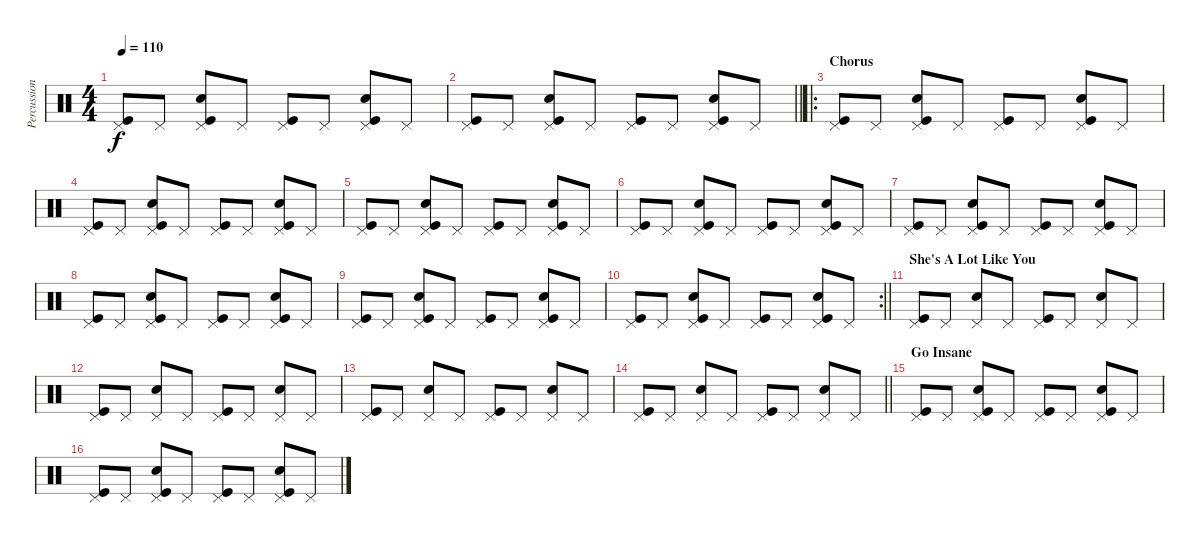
\track ("Percussion" "Percussion") {instrument percussion}
\staff {score}
\articulation defaults
\ts (4 4)
\tempo 110
\clef neutral
\ks c
("Pedal Hi-Hat (hit)" "Kick (hit)").8{dy f} "Pedal Hi-Hat (hit)".8 ("Pedal Hi-Hat (hit)" "Snare (hit) 2" "Kick (hit)").8 "Pedal Hi-Hat (hit)".8 ("Pedal Hi-Hat (hit)" "Kick (hit)").8 "Pedal Hi-Hat (hit)".8 ("Pedal Hi-Hat (hit)" "Snare (hit) 2" "Kick (hit)").8 "Pedal Hi-Hat (hit)".8 |
\barLineRight lightlight
("Pedal Hi-Hat (hit)" "Kick (hit)").8 "Pedal Hi-Hat (hit)".8 ("Pedal Hi-Hat (hit)" "Snare (hit) 2" "Kick (hit)").8 "Pedal Hi-Hat (hit)".8 ("Pedal Hi-Hat (hit)" "Kick (hit)").8 "Pedal Hi-Hat (hit)".8 ("Pedal Hi-Hat (hit)" "Snare (hit) 2" "Kick (hit)").8 "Pedal Hi-Hat (hit)".8 |
\ro
\section ("" "Chorus")
("Pedal Hi-Hat (hit)" "Kick (hit)").8 "Pedal Hi-Hat (hit)".8 ("Pedal Hi-Hat (hit)" "Snare (hit) 2" "Kick (hit)").8 "Pedal Hi-Hat (hit)".8 ("Pedal Hi-Hat (hit)" "Kick (hit)").8 "Pedal Hi-Hat (hit)".8 ("Pedal Hi-Hat (hit)" "Snare (hit) 2" "Kick (hit)").8 "Pedal Hi-Hat (hit)".8 |
("Pedal Hi-Hat (hit)" "Kick (hit)").8 "Pedal Hi-Hat (hit)".8 ("Pedal Hi-Hat (hit)" "Snare (hit) 2" "Kick (hit)").8 "Pedal Hi-Hat (hit)".8 ("Pedal Hi-Hat (hit)" "Kick (hit)").8 "Pedal Hi-Hat (hit)".8 ("Pedal Hi-Hat (hit)" "Snare (hit) 2" "Kick (hit)").8 "Pedal Hi-Hat (hit)".8 |
("Pedal Hi-Hat (hit)" "Kick (hit)").8 "Pedal Hi-Hat (hit)".8 ("Pedal Hi-Hat (hit)" "Snare (hit) 2" "Kick (hit)").8 "Pedal Hi-Hat (hit)".8 ("Pedal Hi-Hat (hit)" "Kick (hit)").8 "Pedal Hi-Hat (hit)".8 ("Pedal Hi-Hat (hit)" "Snare (hit) 2" "Kick (hit)").8 "Pedal Hi-Hat (hit)".8 |
("Pedal Hi-Hat (hit)" "Kick (hit)").8 "Pedal Hi-Hat (hit)".8 ("Pedal Hi-Hat (hit)" "Snare (hit) 2" "Kick (hit)").8 "Pedal Hi-Hat (hit)".8 ("Pedal Hi-Hat (hit)" "Kick (hit)").8 "Pedal Hi-Hat (hit)".8 ("Pedal Hi-Hat (hit)" "Snare (hit) 2" "Kick (hit)").8 "Pedal Hi-Hat (hit)".8 |
("Pedal Hi-Hat (hit)" "Kick (hit)").8 "Pedal Hi-Hat (hit)".8 ("Pedal Hi-Hat (hit)" "Snare (hit) 2" "Kick (hit)").8 "Pedal Hi-Hat (hit)".8 ("Pedal Hi-Hat (hit)" "Kick (hit)").8 "Pedal Hi-Hat (hit)".8 ("Pedal Hi-Hat (hit)" "Snare (hit) 2" "Kick (hit)").8 "Pedal Hi-Hat (hit)".8 |
("Pedal Hi-Hat (hit)" "Kick (hit)").8 "Pedal Hi-Hat (hit)".8 ("Pedal Hi-Hat (hit)" "Snare (hit) 2" "Kick (hit)").8 "Pedal Hi-Hat (hit)".8 ("Pedal Hi-Hat (hit)" "Kick (hit)").8 "Pedal Hi-Hat (hit)".8 ("Pedal Hi-Hat (hit)" "Snare (hit) 2" "Kick (hit)").8 "Pedal Hi-Hat (hit)".8 |
("Pedal Hi-Hat (hit)" "Kick (hit)").8 "Pedal Hi-Hat (hit)".8 ("Pedal Hi-Hat (hit)" "Snare (hit) 2" "Kick (hit)").8 "Pedal Hi-Hat (hit)".8 ("Pedal Hi-Hat (hit)" "Kick (hit)").8 "Pedal Hi-Hat (hit)".8 ("Pedal Hi-Hat (hit)" "Snare (hit) 2" "Kick (hit)").8 "Pedal Hi-Hat (hit)".8 |
\rc 2
\barLineRight lightlight
("Pedal Hi-Hat (hit)" "Kick (hit)").8 "Pedal Hi-Hat (hit)".8 ("Pedal Hi-Hat (hit)" "Snare (hit) 2" "Kick (hit)").8 "Pedal Hi-Hat (hit)".8 ("Pedal Hi-Hat (hit)" "Kick (hit)").8 "Pedal Hi-Hat (hit)".8 ("Pedal Hi-Hat (hit)" "Snare (hit) 2" "Kick (hit)").8 "Pedal Hi-Hat (hit)".8 |
\section ("" "She's A Lot Like You")
("Pedal Hi-Hat (hit)" "Kick (hit)").8 "Pedal Hi-Hat (hit)".8 ("Pedal Hi-Hat (hit)" "Snare (hit) 2").8 "Pedal Hi-Hat (hit)".8 ("Pedal Hi-Hat (hit)" "Kick (hit)").8 "Pedal Hi-Hat (hit)".8 ("Pedal Hi-Hat (hit)" "Snare (hit) 2").8 "Pedal Hi-Hat (hit)".8 |
("Pedal Hi-Hat (hit)" "Kick (hit)").8 "Pedal Hi-Hat (hit)".8 ("Pedal Hi-Hat (hit)" "Snare (hit) 2").8 "Pedal Hi-Hat (hit)".8 ("Pedal Hi-Hat (hit)" "Kick (hit)").8 "Pedal Hi-Hat (hit)".8 ("Pedal Hi-Hat (hit)" "Snare (hit) 2").8 "Pedal Hi-Hat (hit)".8 |
("Pedal Hi-Hat (hit)" "Kick (hit)").8 "Pedal Hi-Hat (hit)".8 ("Pedal Hi-Hat (hit)" "Snare (hit) 2").8 "Pedal Hi-Hat (hit)".8 ("Pedal Hi-Hat (hit)" "Kick (hit)").8 "Pedal Hi-Hat (hit)".8 ("Pedal Hi-Hat (hit)" "Snare (hit) 2").8 "Pedal Hi-Hat (hit)".8 |
\barLineRight lightlight
("Pedal Hi-Hat (hit)" "Kick (hit)").8 "Pedal Hi-Hat (hit)".8 ("Pedal Hi-Hat (hit)" "Snare (hit) 2").8 "Pedal Hi-Hat (hit)".8 ("Pedal Hi-Hat (hit)" "Kick (hit)").8 "Pedal Hi-Hat (hit)".8 ("Pedal Hi-Hat (hit)" "Snare (hit) 2").8 "Pedal Hi-Hat (hit)".8 |
\section ("" "Go Insane")
("Pedal Hi-Hat (hit)" "Kick (hit)").8 "Pedal Hi-Hat (hit)".8 ("Pedal Hi-Hat (hit)" "Snare (hit) 2" "Kick (hit)").8 "Pedal Hi-Hat (hit)".8 ("Pedal Hi-Hat (hit)" "Kick (hit)").8 "Pedal Hi-Hat (hit)".8 ("Pedal Hi-Hat (hit)" "Snare (hit) 2" "Kick (hit)").8 "Pedal Hi-Hat (hit)".8 |
("Pedal Hi-Hat (hit)" "Kick (hit)").8 "Pedal Hi-Hat (hit)".8 ("Pedal Hi-Hat (hit)" "Snare (hit) 2" "Kick (hit)").8 "Pedal Hi-Hat (hit)".8 ("Pedal Hi-Hat (hit)" "Kick (hit)").8 "Pedal Hi-Hat (hit)".8 ("Pedal Hi-Hat (hit)" "Snare (hit) 2" "Kick (hit)").8 "Pedal Hi-Hat (hit)".8
